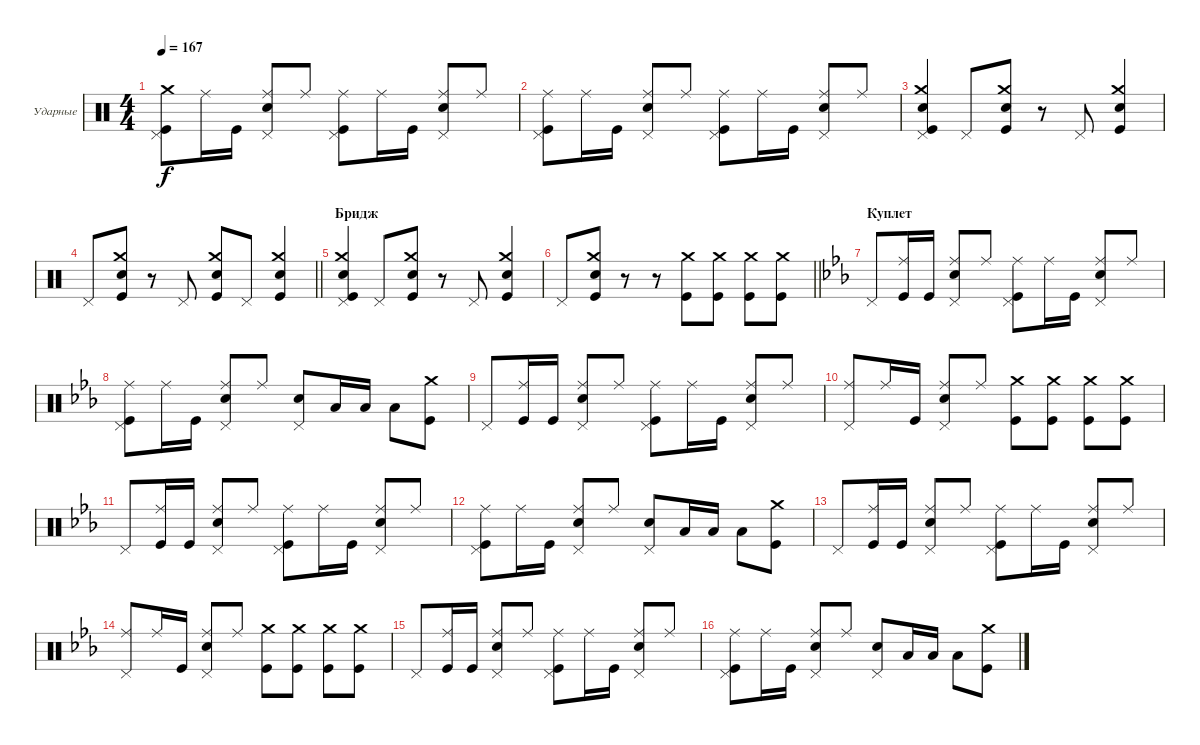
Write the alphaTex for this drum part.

\bracketExtendMode groupsimilarinstruments
\firstSystemTrackNameOrientation horizontal
\otherSystemsTrackNameOrientation horizontal
\track ("Максим Удалов" "Ударные") {instrument percussion}
\staff {score}
\articulation defaults
\ts (4 4)
\tempo 167
\clef neutral
\ks aminor
("Kick (hit)" "Pedal Hi-Hat (hit)" "Crash medium (hit)").8{dy f} "Ride (middle)".16 "Kick (hit)".16 ("Ride (middle)" "Snare (hit) 2" "Pedal Hi-Hat (hit)").8 "Ride (middle)".8 ("Ride (middle)" "Kick (hit)" "Pedal Hi-Hat (hit)").8 "Ride (middle)".16 "Kick (hit)".16 ("Ride (middle)" "Snare (hit) 2" "Pedal Hi-Hat (hit)").8 "Ride (middle)".8 |
("Kick (hit)" "Ride (middle)" "Pedal Hi-Hat (hit)").8 "Ride (middle)".16 "Kick (hit)".16 ("Snare (hit) 2" "Ride (middle)" "Pedal Hi-Hat (hit)").8 "Ride (middle)".8 ("Ride (middle)" "Kick (hit)" "Pedal Hi-Hat (hit)").8 "Ride (middle)".16 "Kick (hit)".16 ("Snare (hit) 2" "Ride (middle)" "Pedal Hi-Hat (hit)").8 "Ride (middle)".8 |
("Snare (hit) 2" "Crash medium (hit)" "Kick (hit)" "Pedal Hi-Hat (hit)").4 "Pedal Hi-Hat (hit)".8 ("Crash medium (hit)" "Kick (hit)" "Snare (hit) 2").8 r.8 "Pedal Hi-Hat (hit)".8 ("Crash medium (hit)" "Snare (hit) 2" "Kick (hit)").4 |
\barLineRight lightlight "Pedal Hi-Hat (hit)".8
("Crash medium (hit)" "Kick (hit)" "Snare (hit) 2").8 r.8 "Pedal Hi-Hat (hit)".8 ("Kick (hit)" "Snare (hit) 2" "Crash medium (hit)").8 "Pedal Hi-Hat (hit)".8 ("Kick (hit)" "Snare (hit) 2" "Crash medium (hit)").4 |
\section ("" "Бридж")
("Snare (hit) 2" "Crash medium (hit)" "Kick (hit)" "Pedal Hi-Hat (hit)").4 "Pedal Hi-Hat (hit)".8 ("Crash medium (hit)" "Kick (hit)" "Snare (hit) 2").8 r.8 "Pedal Hi-Hat (hit)".8 ("Crash medium (hit)" "Snare (hit) 2" "Kick (hit)").4 |
\barLineRight lightlight "Pedal Hi-Hat (hit)".8
("Crash medium (hit)" "Kick (hit)" "Snare (hit) 2").8 r.8 r.8 ("Kick (hit)" "Crash medium (hit)").8 ("Kick (hit)" "Crash medium (hit)").8 ("Kick (hit)" "Crash medium (hit)").8 ("Kick (hit)" "Crash medium (hit)").8 |
\section ("" "Куплет")
\ks cminor "Pedal Hi-Hat (hit)".8
("Ride (middle)" "Kick (hit)").16 "Kick (hit)".16 ("Ride (middle)" "Snare (hit) 2" "Pedal Hi-Hat (hit)").8 "Ride (middle)".8 ("Ride (middle)" "Kick (hit)" "Pedal Hi-Hat (hit)").8 "Ride (middle)".16 "Kick (hit)".16 ("Ride (middle)" "Snare (hit) 2" "Pedal Hi-Hat (hit)").8 "Ride (middle)".8 |
("Ride (middle)" "Kick (hit)" "Pedal Hi-Hat (hit)").8 "Ride (middle)".16 "Kick (hit)".16 ("Ride (middle)" "Snare (hit) 2" "Pedal Hi-Hat (hit)").8 "Ride (middle)".8 ("Pedal Hi-Hat (hit)" "Snare (hit) 2").8 "Low Tom (hit)".16 "Low Tom (hit)".16 "Low Tom (hit)".8 ("Crash medium (hit)" "Kick (hit)").8 |
"Pedal Hi-Hat (hit)".8 ("Ride (middle)" "Kick (hit)").16 "Kick (hit)".16 ("Ride (middle)" "Snare (hit) 2" "Pedal Hi-Hat (hit)").8 "Ride (middle)".8 ("Ride (middle)" "Kick (hit)" "Pedal Hi-Hat (hit)").8 "Ride (middle)".16 "Kick (hit)".16 ("Ride (middle)" "Snare (hit) 2" "Pedal Hi-Hat (hit)").8 "Ride (middle)".8 |
("Pedal Hi-Hat (hit)" "Ride (middle)").8 "Ride (middle)".16 "Kick (hit)".16 ("Ride (middle)" "Snare (hit) 2" "Pedal Hi-Hat (hit)").8 "Ride (middle)".8 ("Kick (hit)" "Crash medium (hit)").8 ("Crash medium (hit)" "Kick (hit)").8 ("Crash medium (hit)" "Kick (hit)").8 ("Crash medium (hit)" "Kick (hit)").8 |
"Pedal Hi-Hat (hit)".8 ("Ride (middle)" "Kick (hit)").16 "Kick (hit)".16 ("Ride (middle)" "Snare (hit) 2" "Pedal Hi-Hat (hit)").8 "Ride (middle)".8 ("Ride (middle)" "Kick (hit)" "Pedal Hi-Hat (hit)").8 "Ride (middle)".16 "Kick (hit)".16 ("Ride (middle)" "Snare (hit) 2" "Pedal Hi-Hat (hit)").8 "Ride (middle)".8 |
("Ride (middle)" "Kick (hit)" "Pedal Hi-Hat (hit)").8 "Ride (middle)".16 "Kick (hit)".16 ("Ride (middle)" "Snare (hit) 2" "Pedal Hi-Hat (hit)").8 "Ride (middle)".8 ("Pedal Hi-Hat (hit)" "Snare (hit) 2").8 "Low Tom (hit)".16 "Low Tom (hit)".16 "Low Tom (hit)".8 ("Crash medium (hit)" "Kick (hit)").8 |
"Pedal Hi-Hat (hit)".8 ("Ride (middle)" "Kick (hit)").16 "Kick (hit)".16 ("Ride (middle)" "Snare (hit) 2" "Pedal Hi-Hat (hit)").8 "Ride (middle)".8 ("Ride (middle)" "Kick (hit)" "Pedal Hi-Hat (hit)").8 "Ride (middle)".16 "Kick (hit)".16 ("Ride (middle)" "Snare (hit) 2" "Pedal Hi-Hat (hit)").8 "Ride (middle)".8 |
("Pedal Hi-Hat (hit)" "Ride (middle)").8 "Ride (middle)".16 "Kick (hit)".16 ("Ride (middle)" "Snare (hit) 2" "Pedal Hi-Hat (hit)").8 "Ride (middle)".8 ("Kick (hit)" "Crash medium (hit)").8 ("Crash medium (hit)" "Kick (hit)").8 ("Crash medium (hit)" "Kick (hit)").8 ("Crash medium (hit)" "Kick (hit)").8 |
"Pedal Hi-Hat (hit)".8 ("Ride (middle)" "Kick (hit)").16 "Kick (hit)".16 ("Ride (middle)" "Snare (hit) 2" "Pedal Hi-Hat (hit)").8 "Ride (middle)".8 ("Ride (middle)" "Kick (hit)" "Pedal Hi-Hat (hit)").8 "Ride (middle)".16 "Kick (hit)".16 ("Ride (middle)" "Snare (hit) 2" "Pedal Hi-Hat (hit)").8 "Ride (middle)".8 |
("Ride (middle)" "Kick (hit)" "Pedal Hi-Hat (hit)").8 "Ride (middle)".16 "Kick (hit)".16 ("Ride (middle)" "Snare (hit) 2" "Pedal Hi-Hat (hit)").8 "Ride (middle)".8 ("Pedal Hi-Hat (hit)" "Snare (hit) 2").8 "Low Tom (hit)".16 "Low Tom (hit)".16 "Low Tom (hit)".8 ("Crash medium (hit)" "Kick (hit)").8
